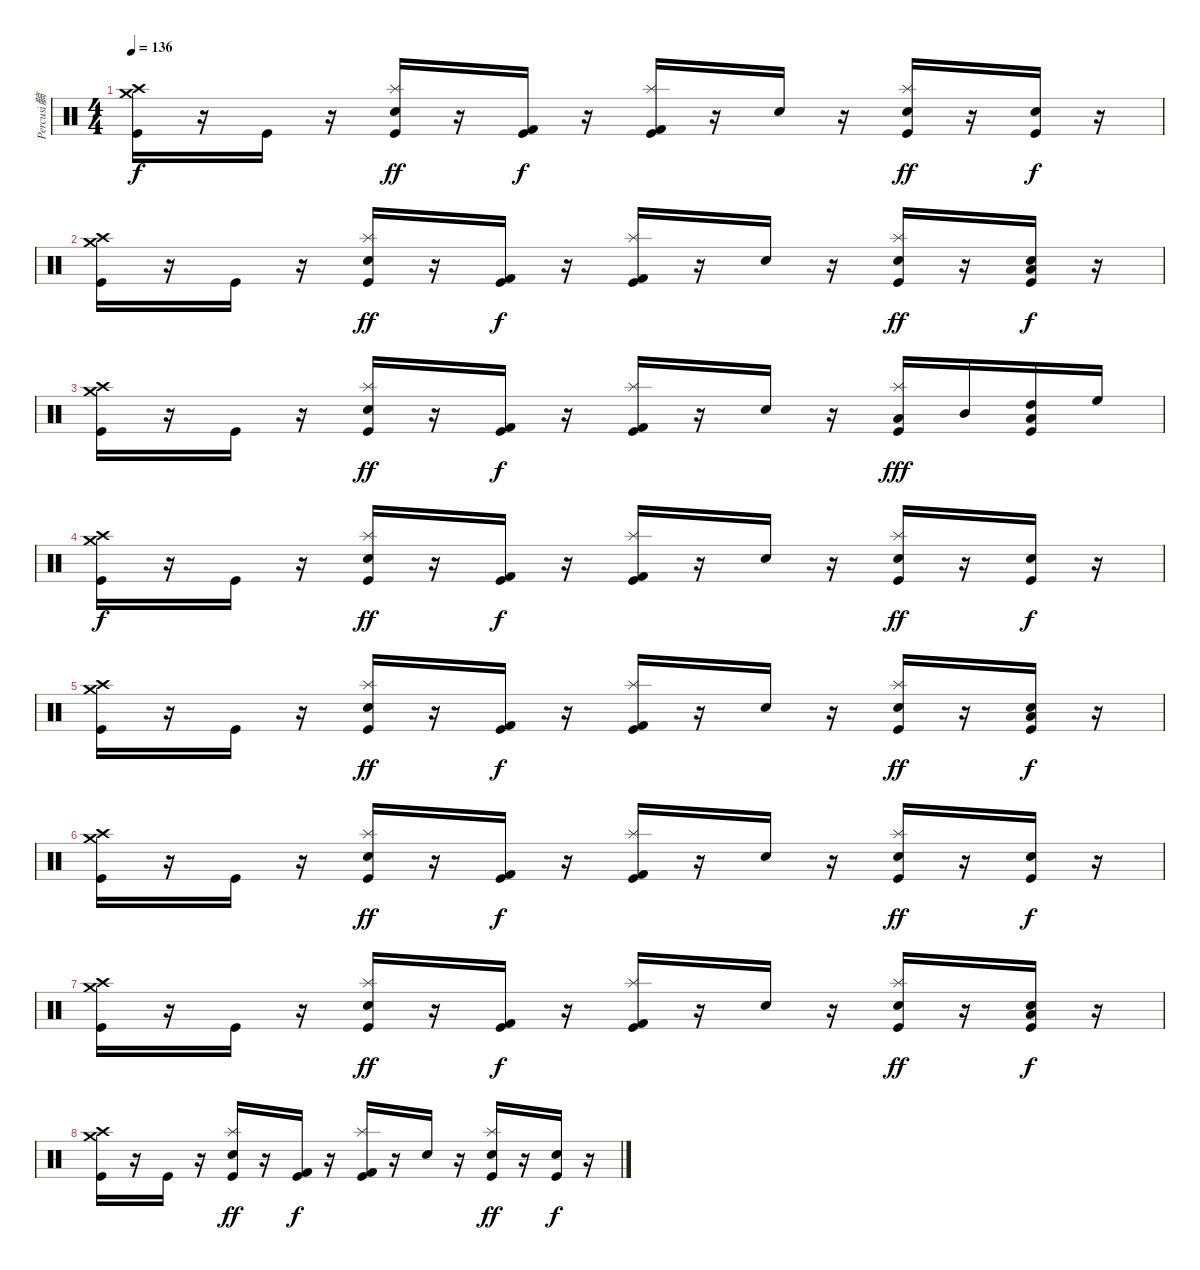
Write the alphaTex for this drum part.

\track ("Percusi髇" "Percusi髇") {instrument percussion}
\staff {score}
\articulation defaults
\ts (4 4)
\tempo 136
\clef neutral
\ks c
("Crash medium (hit)" "Crash high (hit)" "Kick (hit)").16{dy f} r.16 "Kick (hit)".16 r.16 ("Splash (hit)" "Electric Snare (hit)" "Kick (hit)").16{dy ff} r.16 ("Kick (hit) 2" "Kick (hit)").16{dy f} r.16 ("Splash (hit)" "Kick (hit) 2" "Kick (hit)").16 r.16 "Electric Snare (hit)".16 r.16 ("Splash (hit)" "Electric Snare (hit)" "Kick (hit)").16{dy ff} r.16 ("Electric Snare (hit)" "Kick (hit)").16{dy f} r.16 |
("Crash medium (hit)" "Crash high (hit)" "Kick (hit)").16 r.16 "Kick (hit)".16 r.16 ("Splash (hit)" "Electric Snare (hit)" "Kick (hit)").16{dy ff} r.16 ("Kick (hit) 2" "Kick (hit)").16{dy f} r.16 ("Splash (hit)" "Kick (hit) 2" "Kick (hit)").16 r.16 "Electric Snare (hit)".16 r.16 ("Splash (hit)" "Electric Snare (hit)" "Kick (hit)").16{dy ff} r.16 ("Low Tom (hit)" "Electric Snare (hit)" "Kick (hit)").16{dy f} r.16 |
("Crash medium (hit)" "Crash high (hit)" "Kick (hit)").16 r.16 "Kick (hit)".16 r.16 ("Splash (hit)" "Electric Snare (hit)" "Kick (hit)").16{dy ff} r.16 ("Kick (hit) 2" "Kick (hit)").16{dy f} r.16 ("Splash (hit)" "Kick (hit) 2" "Kick (hit)").16 r.16 "Electric Snare (hit)".16 r.16 ("Splash (hit)" "Low Tom (hit)" "Kick (hit)").16{dy fff} "Mid Tom (hit)".16 ("Low Tom (hit)" "High Tom (hit)" "Kick (hit)").16 "High Floor Tom (hit)".16 |
("Crash medium (hit)" "Crash high (hit)" "Kick (hit)").16{dy f} r.16 "Kick (hit)".16 r.16 ("Splash (hit)" "Electric Snare (hit)" "Kick (hit)").16{dy ff} r.16 ("Kick (hit) 2" "Kick (hit)").16{dy f} r.16 ("Splash (hit)" "Kick (hit) 2" "Kick (hit)").16 r.16 "Electric Snare (hit)".16 r.16 ("Splash (hit)" "Electric Snare (hit)" "Kick (hit)").16{dy ff} r.16 ("Electric Snare (hit)" "Kick (hit)").16{dy f} r.16 |
("Crash medium (hit)" "Crash high (hit)" "Kick (hit)").16 r.16 "Kick (hit)".16 r.16 ("Splash (hit)" "Electric Snare (hit)" "Kick (hit)").16{dy ff} r.16 ("Kick (hit) 2" "Kick (hit)").16{dy f} r.16 ("Splash (hit)" "Kick (hit) 2" "Kick (hit)").16 r.16 "Electric Snare (hit)".16 r.16 ("Splash (hit)" "Electric Snare (hit)" "Kick (hit)").16{dy ff} r.16 ("Low Tom (hit)" "Electric Snare (hit)" "Kick (hit)").16{dy f} r.16 |
("Crash medium (hit)" "Crash high (hit)" "Kick (hit)").16 r.16 "Kick (hit)".16 r.16 ("Splash (hit)" "Electric Snare (hit)" "Kick (hit)").16{dy ff} r.16 ("Kick (hit) 2" "Kick (hit)").16{dy f} r.16 ("Splash (hit)" "Kick (hit) 2" "Kick (hit)").16 r.16 "Electric Snare (hit)".16 r.16 ("Splash (hit)" "Electric Snare (hit)" "Kick (hit)").16{dy ff} r.16 ("Electric Snare (hit)" "Kick (hit)").16{dy f} r.16 |
("Crash medium (hit)" "Crash high (hit)" "Kick (hit)").16 r.16 "Kick (hit)".16 r.16 ("Splash (hit)" "Electric Snare (hit)" "Kick (hit)").16{dy ff} r.16 ("Kick (hit) 2" "Kick (hit)").16{dy f} r.16 ("Splash (hit)" "Kick (hit) 2" "Kick (hit)").16 r.16 "Electric Snare (hit)".16 r.16 ("Splash (hit)" "Electric Snare (hit)" "Kick (hit)").16{dy ff} r.16 ("Low Tom (hit)" "Electric Snare (hit)" "Kick (hit)").16{dy f} r.16 |
("Crash medium (hit)" "Crash high (hit)" "Kick (hit)").16 r.16 "Kick (hit)".16 r.16 ("Splash (hit)" "Electric Snare (hit)" "Kick (hit)").16{dy ff} r.16 ("Kick (hit) 2" "Kick (hit)").16{dy f} r.16 ("Splash (hit)" "Kick (hit) 2" "Kick (hit)").16 r.16 "Electric Snare (hit)".16 r.16 ("Splash (hit)" "Electric Snare (hit)" "Kick (hit)").16{dy ff} r.16 ("Electric Snare (hit)" "Kick (hit)").16{dy f} r.16
